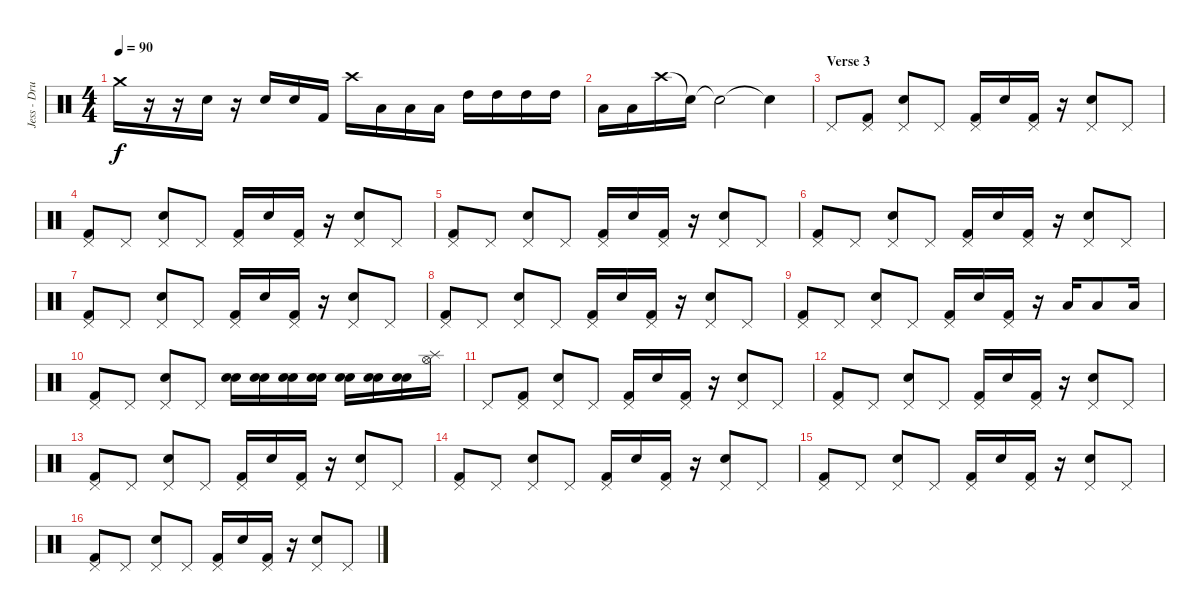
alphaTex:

\track ("Jess - Drums" "Jess - Dru") {instrument percussion}
\staff {score}
\articulation defaults
\ts (4 4)
\tempo 90
\clef neutral
\ks c "Crash medium (hit)".16{dy f}
r.16 r.16 "Electric Snare (hit)".16 r.16 "Electric Snare (hit)".16 "Electric Snare (hit)".16 "Kick (hit) 2".16 "Crash high (hit)".16 "Low Tom (hit)".16 "Low Tom (hit)".16 "Low Tom (hit)".16 "High Tom (hit)".16 "High Tom (hit)".16 "High Tom (hit)".16 "High Tom (hit)".16 |
"Low Tom (hit)".16 "Low Tom (hit)".16 "Crash high (hit)".16 "Snare (hit)"{t}.16 "Snare (hit)"{t}.2 "Snare (hit)"{t}.4 |
\section ("" "Verse 3 ")
"Pedal Hi-Hat (hit)".8 ("Pedal Hi-Hat (hit)" "Kick (hit) 2").8 ("Pedal Hi-Hat (hit)" "Electric Snare (hit)").8 "Pedal Hi-Hat (hit)".8 ("Pedal Hi-Hat (hit)" "Kick (hit) 2").16 "Electric Snare (hit)".16 ("Pedal Hi-Hat (hit)" "Kick (hit) 2").16 r.16 ("Pedal Hi-Hat (hit)" "Electric Snare (hit)").8 "Pedal Hi-Hat (hit)".8 |
("Pedal Hi-Hat (hit)" "Kick (hit) 2").8 "Pedal Hi-Hat (hit)".8 ("Pedal Hi-Hat (hit)" "Electric Snare (hit)").8 "Pedal Hi-Hat (hit)".8 ("Pedal Hi-Hat (hit)" "Kick (hit) 2").16 "Electric Snare (hit)".16 ("Pedal Hi-Hat (hit)" "Kick (hit) 2").16 r.16 ("Pedal Hi-Hat (hit)" "Electric Snare (hit)").8 "Pedal Hi-Hat (hit)".8 |
("Pedal Hi-Hat (hit)" "Kick (hit) 2").8 "Pedal Hi-Hat (hit)".8 ("Pedal Hi-Hat (hit)" "Electric Snare (hit)").8 "Pedal Hi-Hat (hit)".8 ("Pedal Hi-Hat (hit)" "Kick (hit) 2").16 "Electric Snare (hit)".16 ("Pedal Hi-Hat (hit)" "Kick (hit) 2").16 r.16 ("Pedal Hi-Hat (hit)" "Electric Snare (hit)").8 "Pedal Hi-Hat (hit)".8 |
("Pedal Hi-Hat (hit)" "Kick (hit) 2").8 "Pedal Hi-Hat (hit)".8 ("Pedal Hi-Hat (hit)" "Electric Snare (hit)").8 "Pedal Hi-Hat (hit)".8 ("Pedal Hi-Hat (hit)" "Kick (hit) 2").16 "Electric Snare (hit)".16 ("Pedal Hi-Hat (hit)" "Kick (hit) 2").16 r.16 ("Pedal Hi-Hat (hit)" "Electric Snare (hit)").8 "Pedal Hi-Hat (hit)".8 |
("Pedal Hi-Hat (hit)" "Kick (hit) 2").8 "Pedal Hi-Hat (hit)".8 ("Pedal Hi-Hat (hit)" "Electric Snare (hit)").8 "Pedal Hi-Hat (hit)".8 ("Pedal Hi-Hat (hit)" "Kick (hit) 2").16 "Electric Snare (hit)".16 ("Pedal Hi-Hat (hit)" "Kick (hit) 2").16 r.16 ("Pedal Hi-Hat (hit)" "Electric Snare (hit)").8 "Pedal Hi-Hat (hit)".8 |
("Pedal Hi-Hat (hit)" "Kick (hit) 2").8 "Pedal Hi-Hat (hit)".8 ("Pedal Hi-Hat (hit)" "Electric Snare (hit)").8 "Pedal Hi-Hat (hit)".8 ("Pedal Hi-Hat (hit)" "Kick (hit) 2").16 "Electric Snare (hit)".16 ("Pedal Hi-Hat (hit)" "Kick (hit) 2").16 r.16 ("Pedal Hi-Hat (hit)" "Electric Snare (hit)").8 "Pedal Hi-Hat (hit)".8 |
("Pedal Hi-Hat (hit)" "Kick (hit) 2").8 "Pedal Hi-Hat (hit)".8 ("Pedal Hi-Hat (hit)" "Electric Snare (hit)").8 "Pedal Hi-Hat (hit)".8 ("Pedal Hi-Hat (hit)" "Kick (hit) 2").16 "Electric Snare (hit)".16 ("Pedal Hi-Hat (hit)" "Kick (hit) 2").16 r.16 "Low Tom (hit)".16 "Low Tom (hit)".8 "Low Floor Tom (hit)".16 |
("Pedal Hi-Hat (hit)" "Kick (hit) 2").8 "Pedal Hi-Hat (hit)".8 ("Pedal Hi-Hat (hit)" "Electric Snare (hit)").8 "Pedal Hi-Hat (hit)".8 ("Snare (hit) 2" "Electric Snare (hit)").16 ("Snare (hit) 2" "Electric Snare (hit)").16 ("Snare (hit) 2" "Electric Snare (hit)").16 ("Snare (hit) 2" "Electric Snare (hit)").16 ("Snare (hit) 2" "Electric Snare (hit)").16 ("Snare (hit) 2" "Electric Snare (hit)").16 ("Snare (hit) 2" "Electric Snare (hit)").16 ("Splash (hit)" "Hi-Hat (open)").16 |
"Pedal Hi-Hat (hit)".8 ("Pedal Hi-Hat (hit)" "Kick (hit) 2").8 ("Pedal Hi-Hat (hit)" "Electric Snare (hit)").8 "Pedal Hi-Hat (hit)".8 ("Pedal Hi-Hat (hit)" "Kick (hit) 2").16 "Electric Snare (hit)".16 ("Pedal Hi-Hat (hit)" "Kick (hit) 2").16 r.16 ("Pedal Hi-Hat (hit)" "Electric Snare (hit)").8 "Pedal Hi-Hat (hit)".8 |
("Pedal Hi-Hat (hit)" "Kick (hit) 2").8 "Pedal Hi-Hat (hit)".8 ("Pedal Hi-Hat (hit)" "Electric Snare (hit)").8 "Pedal Hi-Hat (hit)".8 ("Pedal Hi-Hat (hit)" "Kick (hit) 2").16 "Electric Snare (hit)".16 ("Pedal Hi-Hat (hit)" "Kick (hit) 2").16 r.16 ("Pedal Hi-Hat (hit)" "Electric Snare (hit)").8 "Pedal Hi-Hat (hit)".8 |
("Pedal Hi-Hat (hit)" "Kick (hit) 2").8 "Pedal Hi-Hat (hit)".8 ("Pedal Hi-Hat (hit)" "Electric Snare (hit)").8 "Pedal Hi-Hat (hit)".8 ("Pedal Hi-Hat (hit)" "Kick (hit) 2").16 "Electric Snare (hit)".16 ("Pedal Hi-Hat (hit)" "Kick (hit) 2").16 r.16 ("Pedal Hi-Hat (hit)" "Electric Snare (hit)").8 "Pedal Hi-Hat (hit)".8 |
("Pedal Hi-Hat (hit)" "Kick (hit) 2").8 "Pedal Hi-Hat (hit)".8 ("Pedal Hi-Hat (hit)" "Electric Snare (hit)").8 "Pedal Hi-Hat (hit)".8 ("Pedal Hi-Hat (hit)" "Kick (hit) 2").16 "Electric Snare (hit)".16 ("Pedal Hi-Hat (hit)" "Kick (hit) 2").16 r.16 ("Pedal Hi-Hat (hit)" "Electric Snare (hit)").8 "Pedal Hi-Hat (hit)".8 |
("Pedal Hi-Hat (hit)" "Kick (hit) 2").8 "Pedal Hi-Hat (hit)".8 ("Pedal Hi-Hat (hit)" "Electric Snare (hit)").8 "Pedal Hi-Hat (hit)".8 ("Pedal Hi-Hat (hit)" "Kick (hit) 2").16 "Electric Snare (hit)".16 ("Pedal Hi-Hat (hit)" "Kick (hit) 2").16 r.16 ("Pedal Hi-Hat (hit)" "Electric Snare (hit)").8 "Pedal Hi-Hat (hit)".8 |
("Pedal Hi-Hat (hit)" "Kick (hit) 2").8 "Pedal Hi-Hat (hit)".8 ("Pedal Hi-Hat (hit)" "Electric Snare (hit)").8 "Pedal Hi-Hat (hit)".8 ("Pedal Hi-Hat (hit)" "Kick (hit) 2").16 "Electric Snare (hit)".16 ("Pedal Hi-Hat (hit)" "Kick (hit) 2").16 r.16 ("Pedal Hi-Hat (hit)" "Electric Snare (hit)").8 "Pedal Hi-Hat (hit)".8
